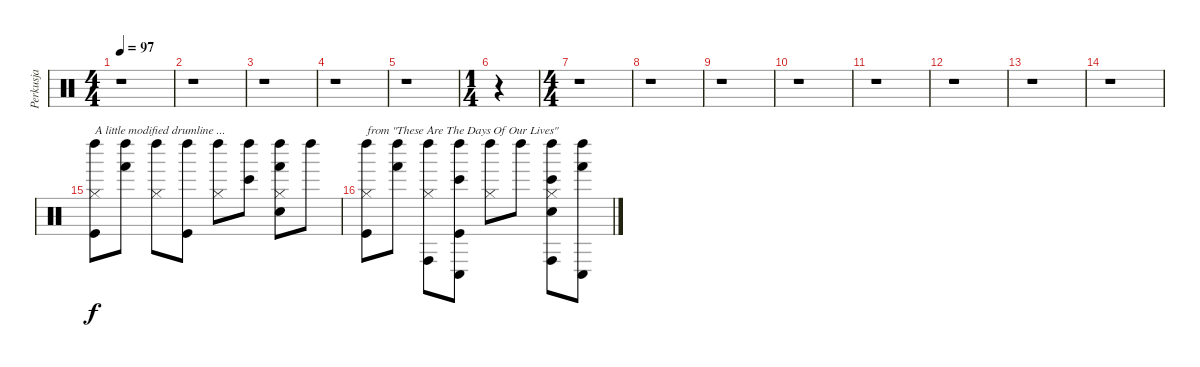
\track ("Perkusja" "Perkusja") {instrument percussion}
\staff {score}
\articulation defaults
\ts (4 4)
\tempo 97
\clef neutral
\ks c
r.1{dy f} |
r.1 |
r.1 |
r.1 |
r.1 |
\ts (1 4)
r.4 |
\ts (4 4)
r.1 |
r.1 |
r.1 |
r.1 |
r.1 |
r.1 |
r.1 |
r.1 |
("Left Maraca (hit)" "Hi-Hat (closed)" "Kick (hit)").8{txt "A little modified drumline ..."} ("Left Maraca (hit)" "Hand (hit)").8 ("Left Maraca (hit)" "Hi-Hat (closed)").8 ("Left Maraca (hit)" "Kick (hit)").8 ("Left Maraca (hit)" "Hi-Hat (closed)").8 ("Left Maraca (hit)" "Bongo High (hit)").8 ("Left Maraca (hit)" "Hand (hit)" "Hi-Hat (closed)" "Snare (hit) 2").8 "Left Maraca (hit)".8 |
("Left Maraca (hit)" "Hi-Hat (closed)" "Kick (hit)").8{txt "from \"These Are The Days Of Our Lives\""} ("Left Maraca (hit)" "Hand (hit)").8 ("Left Maraca (hit)" "Conga high (hit)" "Hi-Hat (closed)").8 ("Left Maraca (hit)" "Conga low (hit)" "Bongo High (hit)" "Kick (hit)").8 ("Left Maraca (hit)" "Hi-Hat (closed)").8 "Left Maraca (hit)".8 ("Left Maraca (hit)" "Conga high (hit)" "Bongo High (hit)" "Hi-Hat (closed)" "Snare (hit) 2").8 ("Left Maraca (hit)" "Conga low (hit)" "Hand (hit)").8
